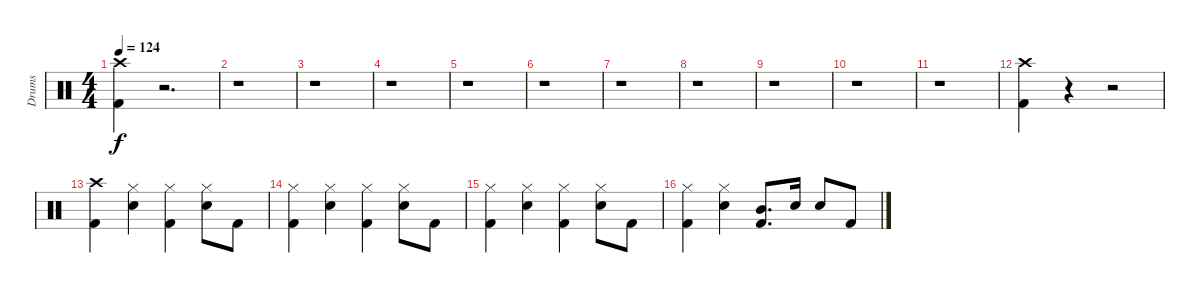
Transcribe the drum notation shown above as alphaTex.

\track ("Drums" "Drums") {instrument percussion}
\staff {score}
\articulation defaults
\ts (4 4)
\tempo 124
\clef neutral
\ks c
("Crash high (hit)" "Kick (hit) 2").4{dy f} r.2{d} |
r.1 |
r.1 |
r.1 |
r.1 |
r.1 |
r.1 |
r.1 |
r.1 |
r.1 |
r.1 |
("Crash high (hit)" "Kick (hit) 2").4 r.4 r.2 |
("Crash high (hit)" "Kick (hit) 2").4 ("Hi-Hat (closed)" "Snare (hit) 2").4 ("Hi-Hat (closed)" "Kick (hit) 2").4 ("Hi-Hat (closed)" "Snare (hit) 2").8 "Kick (hit) 2".8 |
("Hi-Hat (closed)" "Kick (hit) 2").4 ("Hi-Hat (closed)" "Snare (hit) 2").4 ("Hi-Hat (closed)" "Kick (hit) 2").4 ("Hi-Hat (closed)" "Snare (hit) 2").8 "Kick (hit) 2".8 |
("Hi-Hat (closed)" "Kick (hit) 2").4 ("Hi-Hat (closed)" "Snare (hit) 2").4 ("Hi-Hat (closed)" "Kick (hit) 2").4 ("Hi-Hat (closed)" "Snare (hit) 2").8 "Kick (hit) 2".8 |
("Hi-Hat (closed)" "Kick (hit) 2").4 ("Hi-Hat (closed)" "Snare (hit) 2").4 ("Mid Tom (hit)" "Kick (hit) 2").8{d} "Snare (hit) 2".16 "Snare (hit) 2".8 "Kick (hit) 2".8
